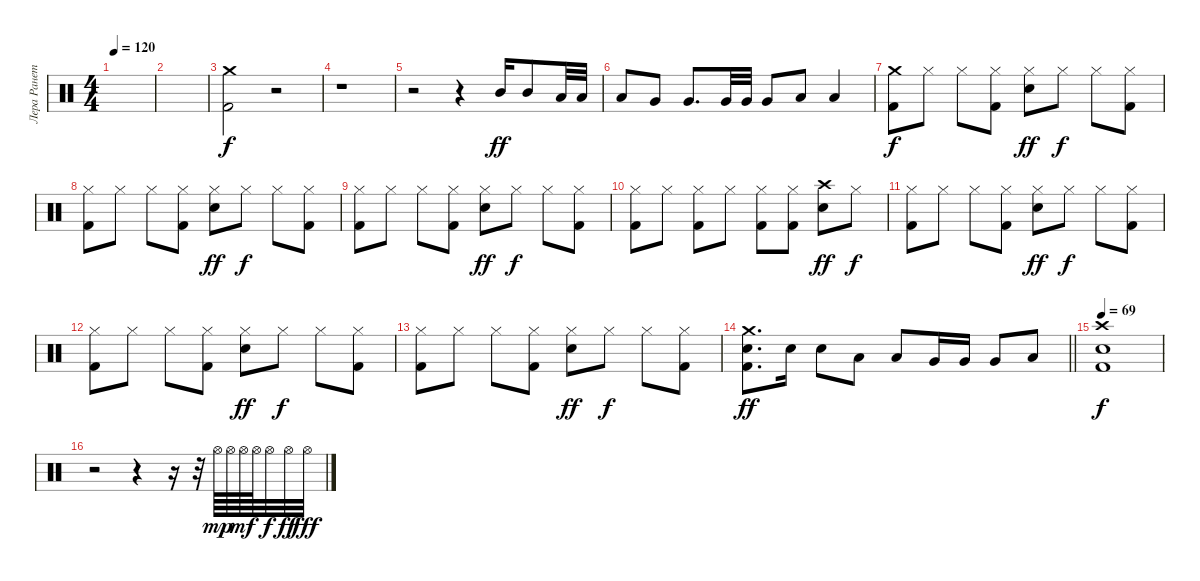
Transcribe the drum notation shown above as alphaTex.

\track ("Лера Ранетка" "Лера Ранет") {instrument percussion}
\staff {score}
\articulation defaults
\ts (4 4)
\tempo 120
\clef neutral
\ks c
|
|
("Crash medium (hit)" "Kick (hit) 2").2 r.2 |
r.1 |
r.2 r.4 "Mid Tom (hit)".16{dy ff} "Mid Tom (hit)".8 "Low Tom (hit)".32 "Low Tom (hit)".32 |
"Low Tom (hit)".8 "Very Low Tom (hit)".8 "Very Low Tom (hit)".8{d} "Very Low Tom (hit)".32 "Very Low Tom (hit)".32 "Very Low Tom (hit)".8 "Low Floor Tom (hit)".8 "Low Floor Tom (hit)".4 |
("Crash medium (hit)" "Kick (hit) 2").8{dy f} "Hi-Hat (closed)".8 "Hi-Hat (closed)".8 ("Hi-Hat (closed)" "Kick (hit) 2").8 ("Hi-Hat (closed)" "Snare (hit) 2").8{dy ff} "Hi-Hat (closed)".8{dy f} "Hi-Hat (closed)".8 ("Hi-Hat (closed)" "Kick (hit) 2").8 |
("Hi-Hat (closed)" "Kick (hit) 2").8 "Hi-Hat (closed)".8 "Hi-Hat (closed)".8 ("Hi-Hat (closed)" "Kick (hit) 2").8 ("Hi-Hat (closed)" "Snare (hit) 2").8{dy ff} "Hi-Hat (closed)".8{dy f} "Hi-Hat (closed)".8 ("Hi-Hat (closed)" "Kick (hit) 2").8 |
("Hi-Hat (closed)" "Kick (hit) 2").8 "Hi-Hat (closed)".8 "Hi-Hat (closed)".8 ("Hi-Hat (closed)" "Kick (hit) 2").8 ("Hi-Hat (closed)" "Snare (hit) 2").8{dy ff} "Hi-Hat (closed)".8{dy f} "Hi-Hat (closed)".8 ("Hi-Hat (closed)" "Kick (hit) 2").8 |
("Hi-Hat (closed)" "Kick (hit) 2").8 "Hi-Hat (closed)".8 ("Hi-Hat (closed)" "Kick (hit) 2").8 "Hi-Hat (closed)".8 ("Hi-Hat (closed)" "Kick (hit) 2").8 ("Hi-Hat (closed)" "Kick (hit) 2").8 ("Crash high (hit)" "Snare (hit) 2").8{dy ff} "Hi-Hat (closed)".8{dy f} |
("Hi-Hat (closed)" "Kick (hit) 2").8 "Hi-Hat (closed)".8 "Hi-Hat (closed)".8 ("Hi-Hat (closed)" "Kick (hit) 2").8 ("Hi-Hat (closed)" "Snare (hit) 2").8{dy ff} "Hi-Hat (closed)".8{dy f} "Hi-Hat (closed)".8 ("Hi-Hat (closed)" "Kick (hit) 2").8 |
("Hi-Hat (closed)" "Kick (hit) 2").8 "Hi-Hat (closed)".8 "Hi-Hat (closed)".8 ("Hi-Hat (closed)" "Kick (hit) 2").8 ("Hi-Hat (closed)" "Snare (hit) 2").8{dy ff} "Hi-Hat (closed)".8{dy f} "Hi-Hat (closed)".8 ("Hi-Hat (closed)" "Kick (hit) 2").8 |
("Hi-Hat (closed)" "Kick (hit) 2").8 "Hi-Hat (closed)".8 "Hi-Hat (closed)".8 ("Hi-Hat (closed)" "Kick (hit) 2").8 ("Hi-Hat (closed)" "Snare (hit) 2").8{dy ff} "Hi-Hat (closed)".8{dy f} "Hi-Hat (closed)".8 ("Hi-Hat (closed)" "Kick (hit) 2").8 |
\barLineRight lightlight
("Crash medium (hit)" "Snare (hit) 2" "Kick (hit) 2").8{d dy ff} "Snare (hit) 2".16 "Snare (hit) 2".8 "Low Tom (hit)".8 "Low Tom (hit)".8 "Very Low Tom (hit)".16 "Very Low Tom (hit)".16 "Very Low Tom (hit)".8 "Low Floor Tom (hit)".8 |
\tempo 69
("Crash high (hit)" "Snare (hit) 2" "Kick (hit) 2").1{dy f} |
r.2 r.4 r.16 r.32 "Hi-Hat (open)".64{dy mp} "Hi-Hat (open)".64 "Hi-Hat (open)".64{dy mf} "Hi-Hat (open)".64 "Hi-Hat (open)".32{dy f} "Hi-Hat (open)".32{dy ff} "Hi-Hat (open)".32{dy fff}
